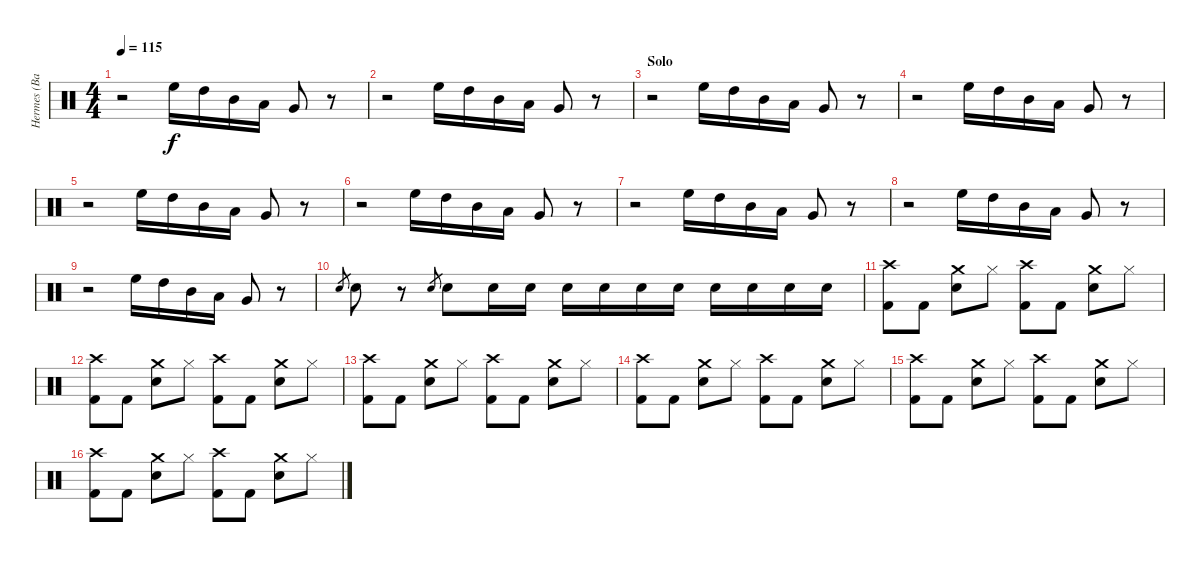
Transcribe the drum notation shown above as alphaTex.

\track ("Hermes (Bateria)" "Hermes (Ba") {instrument percussion}
\staff {score}
\articulation defaults
\ts (4 4)
\tempo 115
\clef neutral
\ks c
r.2{dy f} "High Floor Tom (hit)".16 "High Tom (hit)".16 "Mid Tom (hit)".16 "Low Tom (hit)".16 "Very Low Tom (hit)".8 r.8 |
r.2 "High Floor Tom (hit)".16 "High Tom (hit)".16 "Mid Tom (hit)".16 "Low Tom (hit)".16 "Very Low Tom (hit)".8 r.8 |
\section ("" "Solo")
r.2 "High Floor Tom (hit)".16 "High Tom (hit)".16 "Mid Tom (hit)".16 "Low Tom (hit)".16 "Very Low Tom (hit)".8 r.8 |
r.2 "High Floor Tom (hit)".16 "High Tom (hit)".16 "Mid Tom (hit)".16 "Low Tom (hit)".16 "Very Low Tom (hit)".8 r.8 |
r.2 "High Floor Tom (hit)".16 "High Tom (hit)".16 "Mid Tom (hit)".16 "Low Tom (hit)".16 "Very Low Tom (hit)".8 r.8 |
r.2 "High Floor Tom (hit)".16 "High Tom (hit)".16 "Mid Tom (hit)".16 "Low Tom (hit)".16 "Very Low Tom (hit)".8 r.8 |
r.2 "High Floor Tom (hit)".16 "High Tom (hit)".16 "Mid Tom (hit)".16 "Low Tom (hit)".16 "Very Low Tom (hit)".8 r.8 |
r.2 "High Floor Tom (hit)".16 "High Tom (hit)".16 "Mid Tom (hit)".16 "Low Tom (hit)".16 "Very Low Tom (hit)".8 r.8 |
r.2 "High Floor Tom (hit)".16 "High Tom (hit)".16 "Mid Tom (hit)".16 "Low Tom (hit)".16 "Very Low Tom (hit)".8 r.8 |
"Snare (hit) 2".8{gr} "Snare (hit) 2".8 r.8 "Snare (hit) 2".8{gr} "Snare (hit) 2".8 "Snare (hit) 2".16 "Snare (hit) 2".16 "Snare (hit) 2".16 "Snare (hit) 2".16 "Snare (hit) 2".16 "Snare (hit) 2".16 "Snare (hit) 2".16 "Snare (hit) 2".16 "Snare (hit) 2".16 "Snare (hit) 2".16 |
("Crash high (hit)" "Kick (hit) 2").8 "Kick (hit) 2".8 ("Crash medium (hit)" "Snare (hit) 2").8 "Hi-Hat (closed)".8 ("Crash high (hit)" "Kick (hit) 2").8 "Kick (hit) 2".8 ("Crash medium (hit)" "Snare (hit) 2").8 "Hi-Hat (closed)".8 |
("Crash high (hit)" "Kick (hit) 2").8 "Kick (hit) 2".8 ("Crash medium (hit)" "Snare (hit) 2").8 "Hi-Hat (closed)".8 ("Crash high (hit)" "Kick (hit) 2").8 "Kick (hit) 2".8 ("Crash medium (hit)" "Snare (hit) 2").8 "Hi-Hat (closed)".8 |
("Crash high (hit)" "Kick (hit) 2").8 "Kick (hit) 2".8 ("Crash medium (hit)" "Snare (hit) 2").8 "Hi-Hat (closed)".8 ("Crash high (hit)" "Kick (hit) 2").8 "Kick (hit) 2".8 ("Crash medium (hit)" "Snare (hit) 2").8 "Hi-Hat (closed)".8 |
("Crash high (hit)" "Kick (hit) 2").8 "Kick (hit) 2".8 ("Crash medium (hit)" "Snare (hit) 2").8 "Hi-Hat (closed)".8 ("Crash high (hit)" "Kick (hit) 2").8 "Kick (hit) 2".8 ("Crash medium (hit)" "Snare (hit) 2").8 "Hi-Hat (closed)".8 |
("Crash high (hit)" "Kick (hit) 2").8 "Kick (hit) 2".8 ("Crash medium (hit)" "Snare (hit) 2").8 "Hi-Hat (closed)".8 ("Crash high (hit)" "Kick (hit) 2").8 "Kick (hit) 2".8 ("Crash medium (hit)" "Snare (hit) 2").8 "Hi-Hat (closed)".8 |
("Crash high (hit)" "Kick (hit) 2").8 "Kick (hit) 2".8 ("Crash medium (hit)" "Snare (hit) 2").8 "Hi-Hat (closed)".8 ("Crash high (hit)" "Kick (hit) 2").8 "Kick (hit) 2".8 ("Crash medium (hit)" "Snare (hit) 2").8 "Hi-Hat (closed)".8
